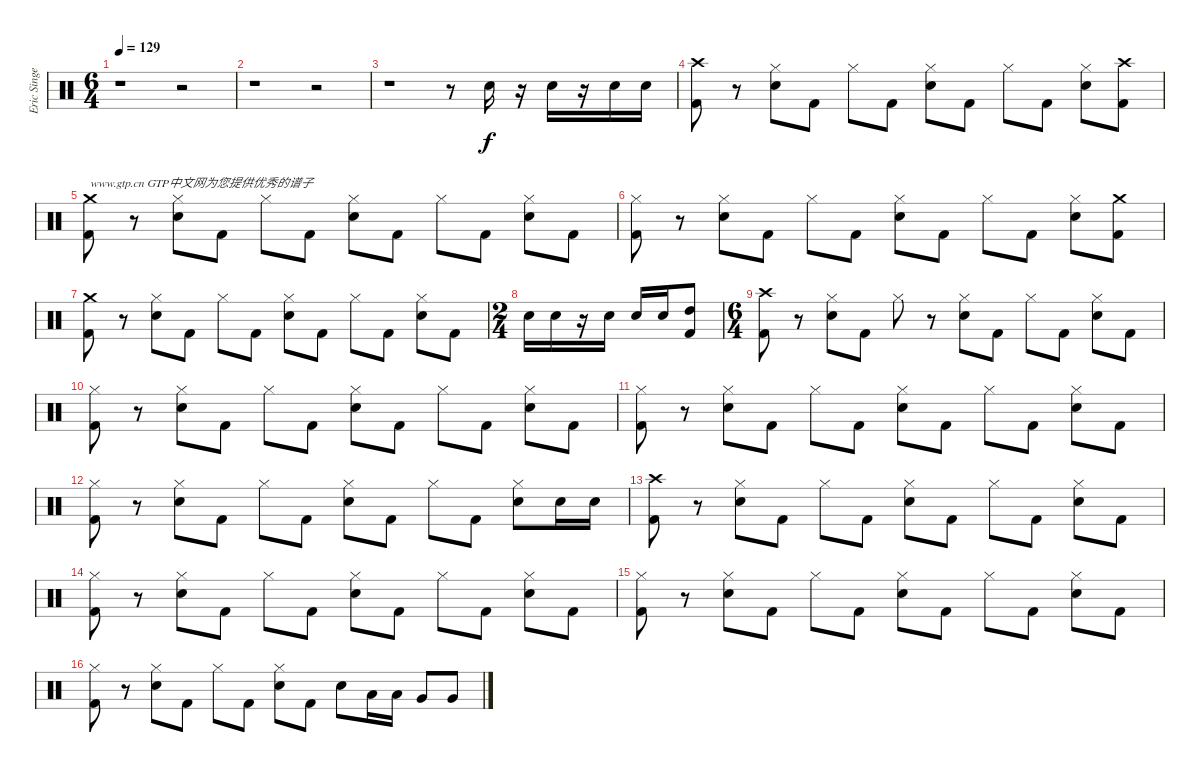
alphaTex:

\track ("Eric Singer" "Eric Singe") {instrument percussion}
\staff {score}
\articulation defaults
\ts (6 4)
\tempo 129
\clef neutral
\ks c
r.1{dy f} r.2 |
r.1 r.2 |
r.1 r.8 "Electric Snare (hit)".16 r.16 "Electric Snare (hit)".16 r.16 "Electric Snare (hit)".16 "Electric Snare (hit)".16 |
("Crash high (hit)" "Kick (hit) 2").8 r.8 ("Hi-Hat (closed)" "Electric Snare (hit)").8 "Kick (hit) 2".8 "Hi-Hat (closed)".8 "Kick (hit) 2".8 ("Hi-Hat (closed)" "Electric Snare (hit)").8 "Kick (hit) 2".8 "Hi-Hat (closed)".8 "Kick (hit) 2".8 ("Hi-Hat (closed)" "Electric Snare (hit)").8 ("Crash high (hit)" "Kick (hit) 2").8 |
("Crash medium (hit)" "Kick (hit) 2").8{txt "www.gtp.cn GTP中文网为您提供优秀的谱子"} r.8 ("Hi-Hat (closed)" "Electric Snare (hit)").8 "Kick (hit) 2".8 "Hi-Hat (closed)".8 "Kick (hit) 2".8 ("Hi-Hat (closed)" "Electric Snare (hit)").8 "Kick (hit) 2".8 "Hi-Hat (closed)".8 "Kick (hit) 2".8 ("Hi-Hat (closed)" "Electric Snare (hit)").8 "Kick (hit) 2".8 |
("Hi-Hat (closed)" "Kick (hit) 2").8 r.8 ("Hi-Hat (closed)" "Electric Snare (hit)").8 "Kick (hit) 2".8 "Hi-Hat (closed)".8 "Kick (hit) 2".8 ("Hi-Hat (closed)" "Electric Snare (hit)").8 "Kick (hit) 2".8 "Hi-Hat (closed)".8 "Kick (hit) 2".8 ("Hi-Hat (closed)" "Electric Snare (hit)").8 ("Crash medium (hit)" "Kick (hit) 2").8 |
("Crash medium (hit)" "Kick (hit) 2").8 r.8 ("Hi-Hat (closed)" "Electric Snare (hit)").8 "Kick (hit) 2".8 "Hi-Hat (closed)".8 "Kick (hit) 2".8 ("Hi-Hat (closed)" "Electric Snare (hit)").8 "Kick (hit) 2".8 "Hi-Hat (closed)".8 "Kick (hit) 2".8 ("Hi-Hat (closed)" "Electric Snare (hit)").8 "Kick (hit) 2".8 |
\ts (2 4)
"Electric Snare (hit)".16 "Electric Snare (hit)".16 r.16 "Electric Snare (hit)".16 "Electric Snare (hit)".16 "Electric Snare (hit)".16 ("High Tom (hit)" "Kick (hit) 2").8 |
\ts (6 4)
("Crash high (hit)" "Kick (hit) 2").8 r.8 ("Hi-Hat (closed)" "Electric Snare (hit)").8 "Kick (hit) 2".8 "Hi-Hat (closed)".8 r.8 ("Hi-Hat (closed)" "Electric Snare (hit)").8 "Kick (hit) 2".8 "Hi-Hat (closed)".8 "Kick (hit) 2".8 ("Hi-Hat (closed)" "Electric Snare (hit)").8 "Kick (hit) 2".8 |
("Hi-Hat (closed)" "Kick (hit) 2").8 r.8 ("Hi-Hat (closed)" "Electric Snare (hit)").8 "Kick (hit) 2".8 "Hi-Hat (closed)".8 "Kick (hit) 2".8 ("Hi-Hat (closed)" "Electric Snare (hit)").8 "Kick (hit) 2".8 "Hi-Hat (closed)".8 "Kick (hit) 2".8 ("Hi-Hat (closed)" "Electric Snare (hit)").8 "Kick (hit) 2".8 |
("Hi-Hat (closed)" "Kick (hit) 2").8 r.8 ("Hi-Hat (closed)" "Electric Snare (hit)").8 "Kick (hit) 2".8 "Hi-Hat (closed)".8 "Kick (hit) 2".8 ("Hi-Hat (closed)" "Electric Snare (hit)").8 "Kick (hit) 2".8 "Hi-Hat (closed)".8 "Kick (hit) 2".8 ("Hi-Hat (closed)" "Electric Snare (hit)").8 "Kick (hit) 2".8 |
("Hi-Hat (closed)" "Kick (hit) 2").8 r.8 ("Hi-Hat (closed)" "Electric Snare (hit)").8 "Kick (hit) 2".8 "Hi-Hat (closed)".8 "Kick (hit) 2".8 ("Hi-Hat (closed)" "Electric Snare (hit)").8 "Kick (hit) 2".8 "Hi-Hat (closed)".8 "Kick (hit) 2".8 ("Hi-Hat (closed)" "Electric Snare (hit)").8 "Electric Snare (hit)".16 "Electric Snare (hit)".16 |
("Crash high (hit)" "Kick (hit) 2").8 r.8 ("Hi-Hat (closed)" "Electric Snare (hit)").8 "Kick (hit) 2".8 "Hi-Hat (closed)".8 "Kick (hit) 2".8 ("Hi-Hat (closed)" "Electric Snare (hit)").8 "Kick (hit) 2".8 "Hi-Hat (closed)".8 "Kick (hit) 2".8 ("Hi-Hat (closed)" "Electric Snare (hit)").8 "Kick (hit) 2".8 |
("Hi-Hat (closed)" "Kick (hit) 2").8 r.8 ("Hi-Hat (closed)" "Electric Snare (hit)").8 "Kick (hit) 2".8 "Hi-Hat (closed)".8 "Kick (hit) 2".8 ("Hi-Hat (closed)" "Electric Snare (hit)").8 "Kick (hit) 2".8 "Hi-Hat (closed)".8 "Kick (hit) 2".8 ("Hi-Hat (closed)" "Electric Snare (hit)").8 "Kick (hit) 2".8 |
("Hi-Hat (closed)" "Kick (hit) 2").8 r.8 ("Hi-Hat (closed)" "Electric Snare (hit)").8 "Kick (hit) 2".8 "Hi-Hat (closed)".8 "Kick (hit) 2".8 ("Hi-Hat (closed)" "Electric Snare (hit)").8 "Kick (hit) 2".8 "Hi-Hat (closed)".8 "Kick (hit) 2".8 ("Hi-Hat (closed)" "Electric Snare (hit)").8 "Kick (hit) 2".8 |
("Hi-Hat (closed)" "Kick (hit) 2").8 r.8 ("Hi-Hat (closed)" "Electric Snare (hit)").8 "Kick (hit) 2".8 "Hi-Hat (closed)".8 "Kick (hit) 2".8 ("Hi-Hat (closed)" "Electric Snare (hit)").8 "Kick (hit) 2".8 "Electric Snare (hit)".8 "Low Tom (hit)".16 "Low Tom (hit)".16 "Very Low Tom (hit)".8 "Very Low Tom (hit)".8
